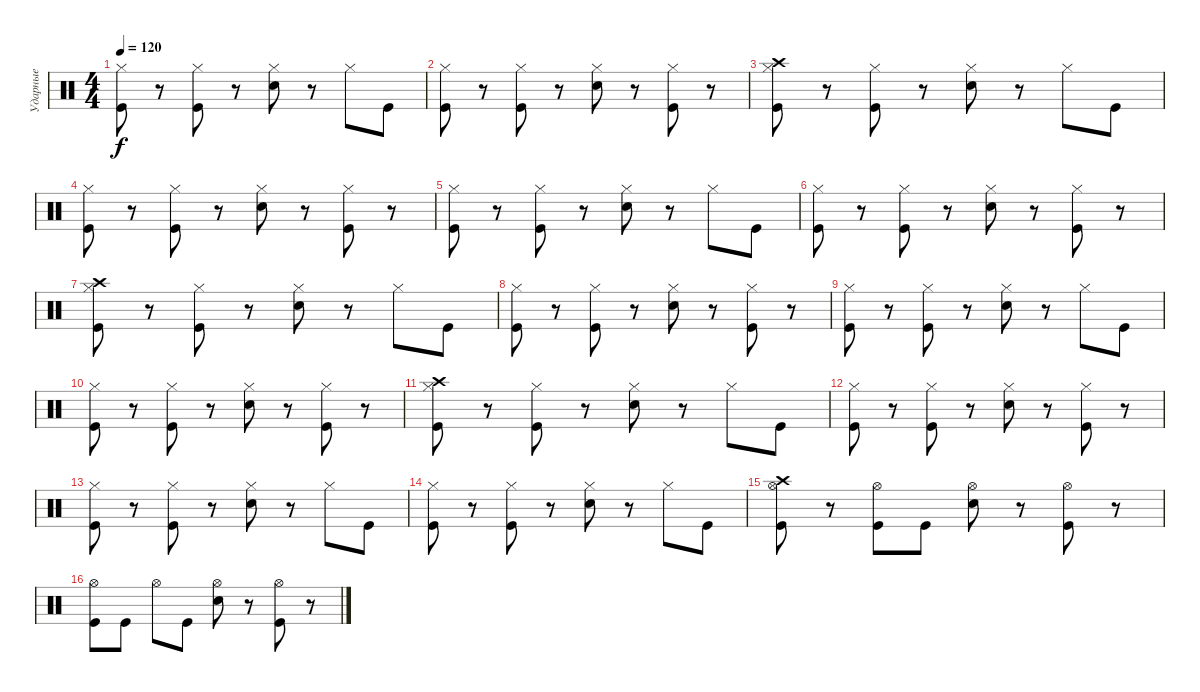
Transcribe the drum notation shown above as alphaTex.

\track ("Ударные" "Ударные") {instrument percussion}
\staff {score}
\articulation defaults
\ts (4 4)
\tempo 120
\clef neutral
\ks c
("Hi-Hat (closed)" "Kick (hit)").8{dy f} r.8 ("Hi-Hat (closed)" "Kick (hit)").8 r.8 ("Hi-Hat (closed)" "Electric Snare (hit)").8 r.8 "Hi-Hat (closed)".8 "Kick (hit)".8 |
("Hi-Hat (closed)" "Kick (hit)").8 r.8 ("Hi-Hat (closed)" "Kick (hit)").8 r.8 ("Hi-Hat (closed)" "Electric Snare (hit)").8 r.8 ("Hi-Hat (closed)" "Kick (hit)").8 r.8 |
("Crash high (hit)" "Hi-Hat (closed)" "Kick (hit)").8 r.8 ("Hi-Hat (closed)" "Kick (hit)").8 r.8 ("Hi-Hat (closed)" "Electric Snare (hit)").8 r.8 "Hi-Hat (closed)".8 "Kick (hit)".8 |
("Hi-Hat (closed)" "Kick (hit)").8 r.8 ("Hi-Hat (closed)" "Kick (hit)").8 r.8 ("Hi-Hat (closed)" "Electric Snare (hit)").8 r.8 ("Hi-Hat (closed)" "Kick (hit)").8 r.8 |
("Hi-Hat (closed)" "Kick (hit)").8 r.8 ("Hi-Hat (closed)" "Kick (hit)").8 r.8 ("Hi-Hat (closed)" "Electric Snare (hit)").8 r.8 "Hi-Hat (closed)".8 "Kick (hit)".8 |
("Hi-Hat (closed)" "Kick (hit)").8 r.8 ("Hi-Hat (closed)" "Kick (hit)").8 r.8 ("Hi-Hat (closed)" "Electric Snare (hit)").8 r.8 ("Hi-Hat (closed)" "Kick (hit)").8 r.8 |
("Crash high (hit)" "Hi-Hat (closed)" "Kick (hit)").8 r.8 ("Hi-Hat (closed)" "Kick (hit)").8 r.8 ("Hi-Hat (closed)" "Electric Snare (hit)").8 r.8 "Hi-Hat (closed)".8 "Kick (hit)".8 |
("Hi-Hat (closed)" "Kick (hit)").8 r.8 ("Hi-Hat (closed)" "Kick (hit)").8 r.8 ("Hi-Hat (closed)" "Electric Snare (hit)").8 r.8 ("Hi-Hat (closed)" "Kick (hit)").8 r.8 |
("Hi-Hat (closed)" "Kick (hit)").8 r.8 ("Hi-Hat (closed)" "Kick (hit)").8 r.8 ("Hi-Hat (closed)" "Electric Snare (hit)").8 r.8 "Hi-Hat (closed)".8 "Kick (hit)".8 |
("Hi-Hat (closed)" "Kick (hit)").8 r.8 ("Hi-Hat (closed)" "Kick (hit)").8 r.8 ("Hi-Hat (closed)" "Electric Snare (hit)").8 r.8 ("Hi-Hat (closed)" "Kick (hit)").8 r.8 |
("Crash high (hit)" "Hi-Hat (closed)" "Kick (hit)").8 r.8 ("Hi-Hat (closed)" "Kick (hit)").8 r.8 ("Hi-Hat (closed)" "Electric Snare (hit)").8 r.8 "Hi-Hat (closed)".8 "Kick (hit)".8 |
("Hi-Hat (closed)" "Kick (hit)").8 r.8 ("Hi-Hat (closed)" "Kick (hit)").8 r.8 ("Hi-Hat (closed)" "Electric Snare (hit)").8 r.8 ("Hi-Hat (closed)" "Kick (hit)").8 r.8 |
("Hi-Hat (closed)" "Kick (hit)").8 r.8 ("Hi-Hat (closed)" "Kick (hit)").8 r.8 ("Hi-Hat (closed)" "Electric Snare (hit)").8 r.8 "Hi-Hat (closed)".8 "Kick (hit)".8 |
("Hi-Hat (closed)" "Kick (hit)").8 r.8 ("Hi-Hat (closed)" "Kick (hit)").8 r.8 ("Hi-Hat (closed)" "Electric Snare (hit)").8 r.8 "Hi-Hat (closed)".8 "Kick (hit)".8 |
("Crash high (hit)" "Hi-Hat (open)" "Kick (hit)").8 r.8 ("Hi-Hat (open)" "Kick (hit)").8 "Kick (hit)".8 ("Hi-Hat (open)" "Electric Snare (hit)").8 r.8 ("Hi-Hat (open)" "Kick (hit)").8 r.8 |
("Hi-Hat (open)" "Kick (hit)").8 "Kick (hit)".8 "Hi-Hat (open)".8 "Kick (hit)".8 ("Hi-Hat (open)" "Electric Snare (hit)").8 r.8 ("Hi-Hat (open)" "Kick (hit)").8 r.8
